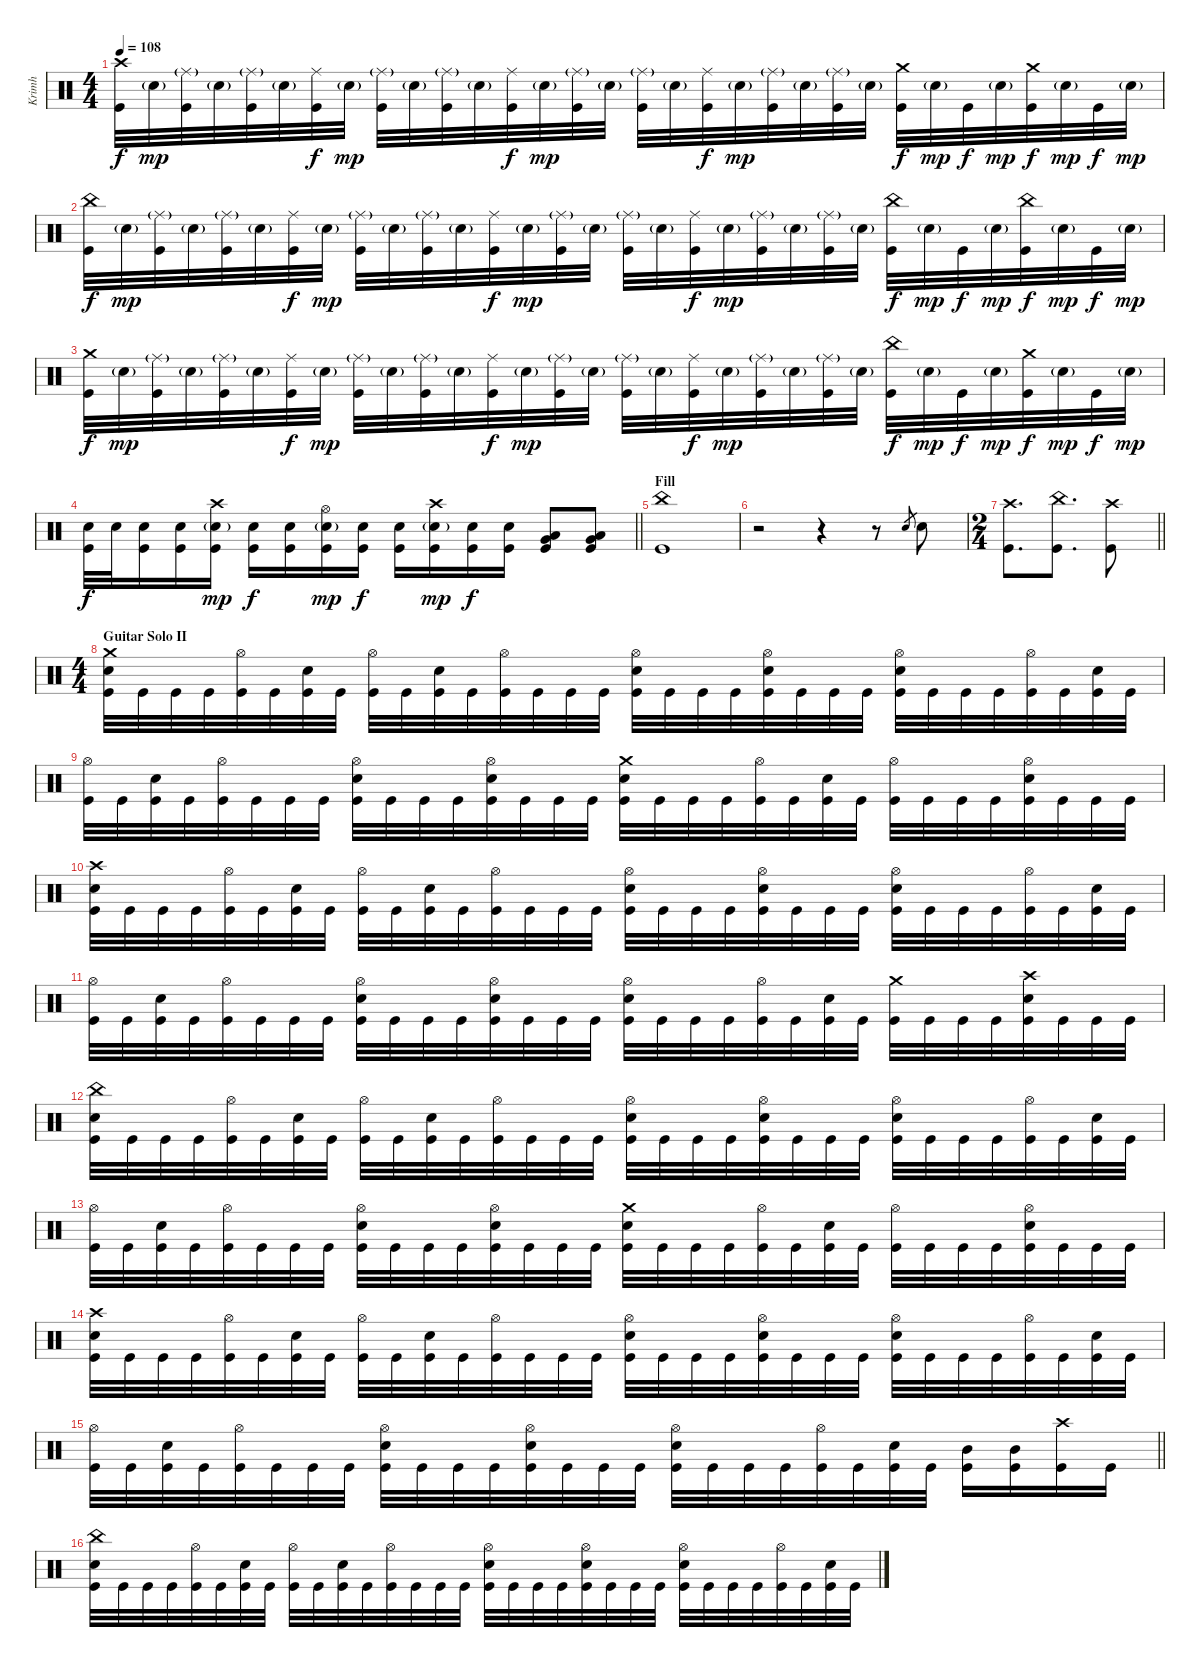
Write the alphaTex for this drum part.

\track ("Krimh" "Krimh") {instrument percussion}
\staff {score}
\articulation defaults
\ts (4 4)
\tempo 108
\clef neutral
\ks c
("Crash high (hit)" "Kick (hit)").32{dy f} "Electric Snare (hit)"{g}.32{dy mp} ("Ride (middle)"{g} "Kick (hit)").32 "Electric Snare (hit)"{g}.32 ("Ride (middle)"{g} "Kick (hit)").32 "Electric Snare (hit)"{g}.32 ("Ride (middle)" "Kick (hit)").32{dy f} "Electric Snare (hit)"{g}.32{dy mp} ("Ride (middle)"{g} "Kick (hit)").32 "Electric Snare (hit)"{g}.32 ("Ride (middle)"{g} "Kick (hit)").32 "Electric Snare (hit)"{g}.32 ("Ride (middle)" "Kick (hit)").32{dy f} "Electric Snare (hit)"{g}.32{dy mp} ("Ride (middle)"{g} "Kick (hit)").32 "Electric Snare (hit)"{g}.32 ("Ride (middle)"{g} "Kick (hit)").32 "Electric Snare (hit)"{g}.32 ("Ride (middle)" "Kick (hit)").32{dy f} "Electric Snare (hit)"{g}.32{dy mp} ("Ride (middle)"{g} "Kick (hit)").32 "Electric Snare (hit)"{g}.32 ("Ride (middle)"{g} "Kick (hit)").32 "Electric Snare (hit)"{g}.32 ("Crash medium (hit)" "Kick (hit)").32{dy f} "Electric Snare (hit)"{g}.32{dy mp} "Kick (hit)".32{dy f} "Electric Snare (hit)"{g}.32{dy mp} ("Crash medium (hit)" "Kick (hit)").32{dy f} "Electric Snare (hit)"{g}.32{dy mp} "Kick (hit)".32{dy f} "Electric Snare (hit)"{g}.32{dy mp} |
("China (hit)" "Kick (hit)").32{dy f} "Electric Snare (hit)"{g}.32{dy mp} ("Ride (middle)"{g} "Kick (hit)").32 "Electric Snare (hit)"{g}.32 ("Ride (middle)"{g} "Kick (hit)").32 "Electric Snare (hit)"{g}.32 ("Ride (middle)" "Kick (hit)").32{dy f} "Electric Snare (hit)"{g}.32{dy mp} ("Ride (middle)"{g} "Kick (hit)").32 "Electric Snare (hit)"{g}.32 ("Ride (middle)"{g} "Kick (hit)").32 "Electric Snare (hit)"{g}.32 ("Ride (middle)" "Kick (hit)").32{dy f} "Electric Snare (hit)"{g}.32{dy mp} ("Ride (middle)"{g} "Kick (hit)").32 "Electric Snare (hit)"{g}.32 ("Ride (middle)"{g} "Kick (hit)").32 "Electric Snare (hit)"{g}.32 ("Ride (middle)" "Kick (hit)").32{dy f} "Electric Snare (hit)"{g}.32{dy mp} ("Ride (middle)"{g} "Kick (hit)").32 "Electric Snare (hit)"{g}.32 ("Ride (middle)"{g} "Kick (hit)").32 "Electric Snare (hit)"{g}.32 ("China (hit)" "Kick (hit)").32{dy f} "Electric Snare (hit)"{g}.32{dy mp} "Kick (hit)".32{dy f} "Electric Snare (hit)"{g}.32{dy mp} ("China (hit)" "Kick (hit)").32{dy f} "Electric Snare (hit)"{g}.32{dy mp} "Kick (hit)".32{dy f} "Electric Snare (hit)"{g}.32{dy mp} |
("Crash medium (hit)" "Kick (hit)").32{dy f} "Electric Snare (hit)"{g}.32{dy mp} ("Ride (middle)"{g} "Kick (hit)").32 "Electric Snare (hit)"{g}.32 ("Ride (middle)"{g} "Kick (hit)").32 "Electric Snare (hit)"{g}.32 ("Ride (middle)" "Kick (hit)").32{dy f} "Electric Snare (hit)"{g}.32{dy mp} ("Ride (middle)"{g} "Kick (hit)").32 "Electric Snare (hit)"{g}.32 ("Ride (middle)"{g} "Kick (hit)").32 "Electric Snare (hit)"{g}.32 ("Ride (middle)" "Kick (hit)").32{dy f} "Electric Snare (hit)"{g}.32{dy mp} ("Ride (middle)"{g} "Kick (hit)").32 "Electric Snare (hit)"{g}.32 ("Ride (middle)"{g} "Kick (hit)").32 "Electric Snare (hit)"{g}.32 ("Ride (middle)" "Kick (hit)").32{dy f} "Electric Snare (hit)"{g}.32{dy mp} ("Ride (middle)"{g} "Kick (hit)").32 "Electric Snare (hit)"{g}.32 ("Ride (middle)"{g} "Kick (hit)").32 "Electric Snare (hit)"{g}.32 ("China (hit)" "Kick (hit)").32{dy f} "Electric Snare (hit)"{g}.32{dy mp} "Kick (hit)".32{dy f} "Electric Snare (hit)"{g}.32{dy mp} ("Crash medium (hit)" "Kick (hit)").32{dy f} "Electric Snare (hit)"{g}.32{dy mp} "Kick (hit)".32{dy f} "Electric Snare (hit)"{g}.32{dy mp} |
\barLineRight lightlight
("Electric Snare (hit)" "Kick (hit)").32{dy f} "Electric Snare (hit)".32 ("Electric Snare (hit)" "Kick (hit)").16 ("Electric Snare (hit)" "Kick (hit)").16 ("Crash high (hit)" "Electric Snare (hit)"{g} "Kick (hit)").16{dy mp} ("Electric Snare (hit)" "Kick (hit)").16{dy f} ("Electric Snare (hit)" "Kick (hit)").16 ("Hi-Hat (open)" "Electric Snare (hit)"{g} "Kick (hit)").16{dy mp} ("Electric Snare (hit)" "Kick (hit)").16{dy f} ("Electric Snare (hit)" "Kick (hit)").16 ("Crash high (hit)" "Electric Snare (hit)"{g} "Kick (hit)").16{dy mp} ("Electric Snare (hit)" "Kick (hit)").16{dy f} ("Electric Snare (hit)" "Kick (hit)").16 ("Low Tom (hit)" "Very Low Tom (hit)" "Kick (hit)").8 ("Low Tom (hit)" "Very Low Tom (hit)" "Kick (hit)").8 |
\section ("" "Fill")
("China (hit)" "Kick (hit)").1 |
r.2 r.4 r.8 "Electric Snare (hit)".8{gr} "Electric Snare (hit)".8 |
\ts (2 4)
\barLineRight lightlight
("Kick (hit)" "Crash high (hit)").8{d} ("Kick (hit)" "China (hit)").8{d} ("Kick (hit)" "Crash high (hit)").8 |
\ts (4 4)
\section ("" "Guitar Solo II")
("Crash medium (hit)" "Electric Snare (hit)" "Kick (hit)").32 "Kick (hit)".32 "Kick (hit)".32 "Kick (hit)".32 ("Hi-Hat (open)" "Kick (hit)").32 "Kick (hit)".32 ("Electric Snare (hit)" "Kick (hit)").32 "Kick (hit)".32 ("Hi-Hat (open)" "Kick (hit)").32 "Kick (hit)".32 ("Electric Snare (hit)" "Kick (hit)").32 "Kick (hit)".32 ("Hi-Hat (open)" "Kick (hit)").32 "Kick (hit)".32 "Kick (hit)".32 "Kick (hit)".32 ("Hi-Hat (open)" "Electric Snare (hit)" "Kick (hit)").32 "Kick (hit)".32 "Kick (hit)".32 "Kick (hit)".32 ("Hi-Hat (open)" "Electric Snare (hit)" "Kick (hit)").32 "Kick (hit)".32 "Kick (hit)".32 "Kick (hit)".32 ("Hi-Hat (open)" "Electric Snare (hit)" "Kick (hit)").32 "Kick (hit)".32 "Kick (hit)".32 "Kick (hit)".32 ("Hi-Hat (open)" "Kick (hit)").32 "Kick (hit)".32 ("Electric Snare (hit)" "Kick (hit)").32 "Kick (hit)".32 |
("Hi-Hat (open)" "Kick (hit)").32 "Kick (hit)".32 ("Electric Snare (hit)" "Kick (hit)").32 "Kick (hit)".32 ("Hi-Hat (open)" "Kick (hit)").32 "Kick (hit)".32 "Kick (hit)".32 "Kick (hit)".32 ("Hi-Hat (open)" "Electric Snare (hit)" "Kick (hit)").32 "Kick (hit)".32 "Kick (hit)".32 "Kick (hit)".32 ("Hi-Hat (open)" "Electric Snare (hit)" "Kick (hit)").32 "Kick (hit)".32 "Kick (hit)".32 "Kick (hit)".32 ("Crash medium (hit)" "Electric Snare (hit)" "Kick (hit)").32 "Kick (hit)".32 "Kick (hit)".32 "Kick (hit)".32 ("Hi-Hat (open)" "Kick (hit)").32 "Kick (hit)".32 ("Electric Snare (hit)" "Kick (hit)").32 "Kick (hit)".32 ("Hi-Hat (open)" "Kick (hit)").32 "Kick (hit)".32 "Kick (hit)".32 "Kick (hit)".32 ("Hi-Hat (open)" "Electric Snare (hit)" "Kick (hit)").32 "Kick (hit)".32 "Kick (hit)".32 "Kick (hit)".32 |
("Crash high (hit)" "Electric Snare (hit)" "Kick (hit)").32 "Kick (hit)".32 "Kick (hit)".32 "Kick (hit)".32 ("Hi-Hat (open)" "Kick (hit)").32 "Kick (hit)".32 ("Electric Snare (hit)" "Kick (hit)").32 "Kick (hit)".32 ("Hi-Hat (open)" "Kick (hit)").32 "Kick (hit)".32 ("Electric Snare (hit)" "Kick (hit)").32 "Kick (hit)".32 ("Hi-Hat (open)" "Kick (hit)").32 "Kick (hit)".32 "Kick (hit)".32 "Kick (hit)".32 ("Hi-Hat (open)" "Electric Snare (hit)" "Kick (hit)").32 "Kick (hit)".32 "Kick (hit)".32 "Kick (hit)".32 ("Hi-Hat (open)" "Electric Snare (hit)" "Kick (hit)").32 "Kick (hit)".32 "Kick (hit)".32 "Kick (hit)".32 ("Hi-Hat (open)" "Electric Snare (hit)" "Kick (hit)").32 "Kick (hit)".32 "Kick (hit)".32 "Kick (hit)".32 ("Hi-Hat (open)" "Kick (hit)").32 "Kick (hit)".32 ("Electric Snare (hit)" "Kick (hit)").32 "Kick (hit)".32 |
("Hi-Hat (open)" "Kick (hit)").32 "Kick (hit)".32 ("Electric Snare (hit)" "Kick (hit)").32 "Kick (hit)".32 ("Hi-Hat (open)" "Kick (hit)").32 "Kick (hit)".32 "Kick (hit)".32 "Kick (hit)".32 ("Hi-Hat (open)" "Electric Snare (hit)" "Kick (hit)").32 "Kick (hit)".32 "Kick (hit)".32 "Kick (hit)".32 ("Hi-Hat (open)" "Electric Snare (hit)" "Kick (hit)").32 "Kick (hit)".32 "Kick (hit)".32 "Kick (hit)".32 ("Hi-Hat (open)" "Electric Snare (hit)" "Kick (hit)").32 "Kick (hit)".32 "Kick (hit)".32 "Kick (hit)".32 ("Hi-Hat (open)" "Kick (hit)").32 "Kick (hit)".32 ("Electric Snare (hit)" "Kick (hit)").32 "Kick (hit)".32 ("Crash medium (hit)" "Kick (hit)").32 "Kick (hit)".32 "Kick (hit)".32 "Kick (hit)".32 ("Crash high (hit)" "Electric Snare (hit)" "Kick (hit)").32 "Kick (hit)".32 "Kick (hit)".32 "Kick (hit)".32 |
("China (hit)" "Electric Snare (hit)" "Kick (hit)").32 "Kick (hit)".32 "Kick (hit)".32 "Kick (hit)".32 ("Hi-Hat (open)" "Kick (hit)").32 "Kick (hit)".32 ("Electric Snare (hit)" "Kick (hit)").32 "Kick (hit)".32 ("Hi-Hat (open)" "Kick (hit)").32 "Kick (hit)".32 ("Electric Snare (hit)" "Kick (hit)").32 "Kick (hit)".32 ("Hi-Hat (open)" "Kick (hit)").32 "Kick (hit)".32 "Kick (hit)".32 "Kick (hit)".32 ("Hi-Hat (open)" "Electric Snare (hit)" "Kick (hit)").32 "Kick (hit)".32 "Kick (hit)".32 "Kick (hit)".32 ("Hi-Hat (open)" "Electric Snare (hit)" "Kick (hit)").32 "Kick (hit)".32 "Kick (hit)".32 "Kick (hit)".32 ("Hi-Hat (open)" "Electric Snare (hit)" "Kick (hit)").32 "Kick (hit)".32 "Kick (hit)".32 "Kick (hit)".32 ("Hi-Hat (open)" "Kick (hit)").32 "Kick (hit)".32 ("Electric Snare (hit)" "Kick (hit)").32 "Kick (hit)".32 |
("Hi-Hat (open)" "Kick (hit)").32 "Kick (hit)".32 ("Electric Snare (hit)" "Kick (hit)").32 "Kick (hit)".32 ("Hi-Hat (open)" "Kick (hit)").32 "Kick (hit)".32 "Kick (hit)".32 "Kick (hit)".32 ("Hi-Hat (open)" "Electric Snare (hit)" "Kick (hit)").32 "Kick (hit)".32 "Kick (hit)".32 "Kick (hit)".32 ("Hi-Hat (open)" "Electric Snare (hit)" "Kick (hit)").32 "Kick (hit)".32 "Kick (hit)".32 "Kick (hit)".32 ("Crash medium (hit)" "Electric Snare (hit)" "Kick (hit)").32 "Kick (hit)".32 "Kick (hit)".32 "Kick (hit)".32 ("Hi-Hat (open)" "Kick (hit)").32 "Kick (hit)".32 ("Electric Snare (hit)" "Kick (hit)").32 "Kick (hit)".32 ("Hi-Hat (open)" "Kick (hit)").32 "Kick (hit)".32 "Kick (hit)".32 "Kick (hit)".32 ("Hi-Hat (open)" "Electric Snare (hit)" "Kick (hit)").32 "Kick (hit)".32 "Kick (hit)".32 "Kick (hit)".32 |
("Crash high (hit)" "Electric Snare (hit)" "Kick (hit)").32 "Kick (hit)".32 "Kick (hit)".32 "Kick (hit)".32 ("Hi-Hat (open)" "Kick (hit)").32 "Kick (hit)".32 ("Electric Snare (hit)" "Kick (hit)").32 "Kick (hit)".32 ("Hi-Hat (open)" "Kick (hit)").32 "Kick (hit)".32 ("Electric Snare (hit)" "Kick (hit)").32 "Kick (hit)".32 ("Hi-Hat (open)" "Kick (hit)").32 "Kick (hit)".32 "Kick (hit)".32 "Kick (hit)".32 ("Hi-Hat (open)" "Electric Snare (hit)" "Kick (hit)").32 "Kick (hit)".32 "Kick (hit)".32 "Kick (hit)".32 ("Hi-Hat (open)" "Electric Snare (hit)" "Kick (hit)").32 "Kick (hit)".32 "Kick (hit)".32 "Kick (hit)".32 ("Hi-Hat (open)" "Electric Snare (hit)" "Kick (hit)").32 "Kick (hit)".32 "Kick (hit)".32 "Kick (hit)".32 ("Hi-Hat (open)" "Kick (hit)").32 "Kick (hit)".32 ("Electric Snare (hit)" "Kick (hit)").32 "Kick (hit)".32 |
\barLineRight lightlight
("Hi-Hat (open)" "Kick (hit)").32 "Kick (hit)".32 ("Electric Snare (hit)" "Kick (hit)").32 "Kick (hit)".32 ("Hi-Hat (open)" "Kick (hit)").32 "Kick (hit)".32 "Kick (hit)".32 "Kick (hit)".32 ("Hi-Hat (open)" "Electric Snare (hit)" "Kick (hit)").32 "Kick (hit)".32 "Kick (hit)".32 "Kick (hit)".32 ("Hi-Hat (open)" "Electric Snare (hit)" "Kick (hit)").32 "Kick (hit)".32 "Kick (hit)".32 "Kick (hit)".32 ("Hi-Hat (open)" "Electric Snare (hit)" "Kick (hit)").32 "Kick (hit)".32 "Kick (hit)".32 "Kick (hit)".32 ("Hi-Hat (open)" "Kick (hit)").32 "Kick (hit)".32 ("Electric Snare (hit)" "Kick (hit)").32 "Kick (hit)".32 ("Mid Tom (hit)" "Kick (hit)").16 ("Mid Tom (hit)" "Kick (hit)").16 ("Crash high (hit)" "Kick (hit)").16 "Kick (hit)".16 |
("China (hit)" "Electric Snare (hit)" "Kick (hit)").32 "Kick (hit)".32 "Kick (hit)".32 "Kick (hit)".32 ("Hi-Hat (open)" "Kick (hit)").32 "Kick (hit)".32 ("Electric Snare (hit)" "Kick (hit)").32 "Kick (hit)".32 ("Hi-Hat (open)" "Kick (hit)").32 "Kick (hit)".32 ("Electric Snare (hit)" "Kick (hit)").32 "Kick (hit)".32 ("Hi-Hat (open)" "Kick (hit)").32 "Kick (hit)".32 "Kick (hit)".32 "Kick (hit)".32 ("Hi-Hat (open)" "Electric Snare (hit)" "Kick (hit)").32 "Kick (hit)".32 "Kick (hit)".32 "Kick (hit)".32 ("Hi-Hat (open)" "Electric Snare (hit)" "Kick (hit)").32 "Kick (hit)".32 "Kick (hit)".32 "Kick (hit)".32 ("Hi-Hat (open)" "Electric Snare (hit)" "Kick (hit)").32 "Kick (hit)".32 "Kick (hit)".32 "Kick (hit)".32 ("Hi-Hat (open)" "Kick (hit)").32 "Kick (hit)".32 ("Electric Snare (hit)" "Kick (hit)").32 "Kick (hit)".32
